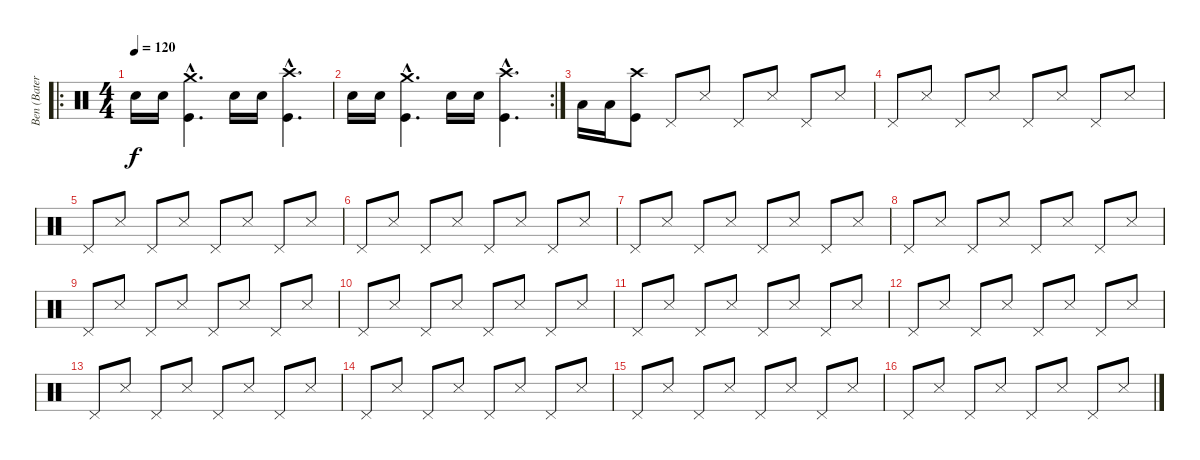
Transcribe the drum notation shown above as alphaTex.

\track ("Ben (Bateria)" "Ben (Bater") {instrument percussion}
\staff {score}
\articulation defaults
\ro
\ts (4 4)
\tempo 120
\clef neutral
\ks c "Snare (hit) 2".16{dy f} "Snare (hit) 2".16
("Kick (hit)"{hac} "Crash medium (hit)"{hac}).4{d} "Snare (hit) 2".16 "Snare (hit) 2".16 ("Kick (hit)"{hac} "Crash high (hit)"{hac}).4{d} |
\rc 2 "Snare (hit) 2".16 "Snare (hit) 2".16
("Kick (hit)"{hac} "Crash medium (hit)"{hac}).4{d} "Snare (hit) 2".16 "Snare (hit) 2".16 ("Kick (hit)"{hac} "Crash high (hit)"{hac}).4{d} |
"Low Floor Tom (hit)".16 "Low Floor Tom (hit)".16 ("Kick (hit)" "Crash high (hit)").8 "Pedal Hi-Hat (hit)".8 "Snare (side stick) 3".8 "Pedal Hi-Hat (hit)".8 "Snare (side stick) 3".8 "Pedal Hi-Hat (hit)".8 "Snare (side stick) 3".8 |
"Pedal Hi-Hat (hit)".8 "Snare (side stick) 3".8 "Pedal Hi-Hat (hit)".8 "Snare (side stick) 3".8 "Pedal Hi-Hat (hit)".8 "Snare (side stick) 3".8 "Pedal Hi-Hat (hit)".8 "Snare (side stick) 3".8 |
"Pedal Hi-Hat (hit)".8 "Snare (side stick) 3".8 "Pedal Hi-Hat (hit)".8 "Snare (side stick) 3".8 "Pedal Hi-Hat (hit)".8 "Snare (side stick) 3".8 "Pedal Hi-Hat (hit)".8 "Snare (side stick) 3".8 |
"Pedal Hi-Hat (hit)".8 "Snare (side stick) 3".8 "Pedal Hi-Hat (hit)".8 "Snare (side stick) 3".8 "Pedal Hi-Hat (hit)".8 "Snare (side stick) 3".8 "Pedal Hi-Hat (hit)".8 "Snare (side stick) 3".8 |
"Pedal Hi-Hat (hit)".8 "Snare (side stick) 3".8 "Pedal Hi-Hat (hit)".8 "Snare (side stick) 3".8 "Pedal Hi-Hat (hit)".8 "Snare (side stick) 3".8 "Pedal Hi-Hat (hit)".8 "Snare (side stick) 3".8 |
"Pedal Hi-Hat (hit)".8 "Snare (side stick) 3".8 "Pedal Hi-Hat (hit)".8 "Snare (side stick) 3".8 "Pedal Hi-Hat (hit)".8 "Snare (side stick) 3".8 "Pedal Hi-Hat (hit)".8 "Snare (side stick) 3".8 |
"Pedal Hi-Hat (hit)".8 "Snare (side stick) 3".8 "Pedal Hi-Hat (hit)".8 "Snare (side stick) 3".8 "Pedal Hi-Hat (hit)".8 "Snare (side stick) 3".8 "Pedal Hi-Hat (hit)".8 "Snare (side stick) 3".8 |
"Pedal Hi-Hat (hit)".8 "Snare (side stick) 3".8 "Pedal Hi-Hat (hit)".8 "Snare (side stick) 3".8 "Pedal Hi-Hat (hit)".8 "Snare (side stick) 3".8 "Pedal Hi-Hat (hit)".8 "Snare (side stick) 3".8 |
"Pedal Hi-Hat (hit)".8 "Snare (side stick) 3".8 "Pedal Hi-Hat (hit)".8 "Snare (side stick) 3".8 "Pedal Hi-Hat (hit)".8 "Snare (side stick) 3".8 "Pedal Hi-Hat (hit)".8 "Snare (side stick) 3".8 |
"Pedal Hi-Hat (hit)".8 "Snare (side stick) 3".8 "Pedal Hi-Hat (hit)".8 "Snare (side stick) 3".8 "Pedal Hi-Hat (hit)".8 "Snare (side stick) 3".8 "Pedal Hi-Hat (hit)".8 "Snare (side stick) 3".8 |
"Pedal Hi-Hat (hit)".8 "Snare (side stick) 3".8 "Pedal Hi-Hat (hit)".8 "Snare (side stick) 3".8 "Pedal Hi-Hat (hit)".8 "Snare (side stick) 3".8 "Pedal Hi-Hat (hit)".8 "Snare (side stick) 3".8 |
"Pedal Hi-Hat (hit)".8 "Snare (side stick) 3".8 "Pedal Hi-Hat (hit)".8 "Snare (side stick) 3".8 "Pedal Hi-Hat (hit)".8 "Snare (side stick) 3".8 "Pedal Hi-Hat (hit)".8 "Snare (side stick) 3".8 |
"Pedal Hi-Hat (hit)".8 "Snare (side stick) 3".8 "Pedal Hi-Hat (hit)".8 "Snare (side stick) 3".8 "Pedal Hi-Hat (hit)".8 "Snare (side stick) 3".8 "Pedal Hi-Hat (hit)".8 "Snare (side stick) 3".8 |
"Pedal Hi-Hat (hit)".8 "Snare (side stick) 3".8 "Pedal Hi-Hat (hit)".8 "Snare (side stick) 3".8 "Pedal Hi-Hat (hit)".8 "Snare (side stick) 3".8 "Pedal Hi-Hat (hit)".8 "Snare (side stick) 3".8
